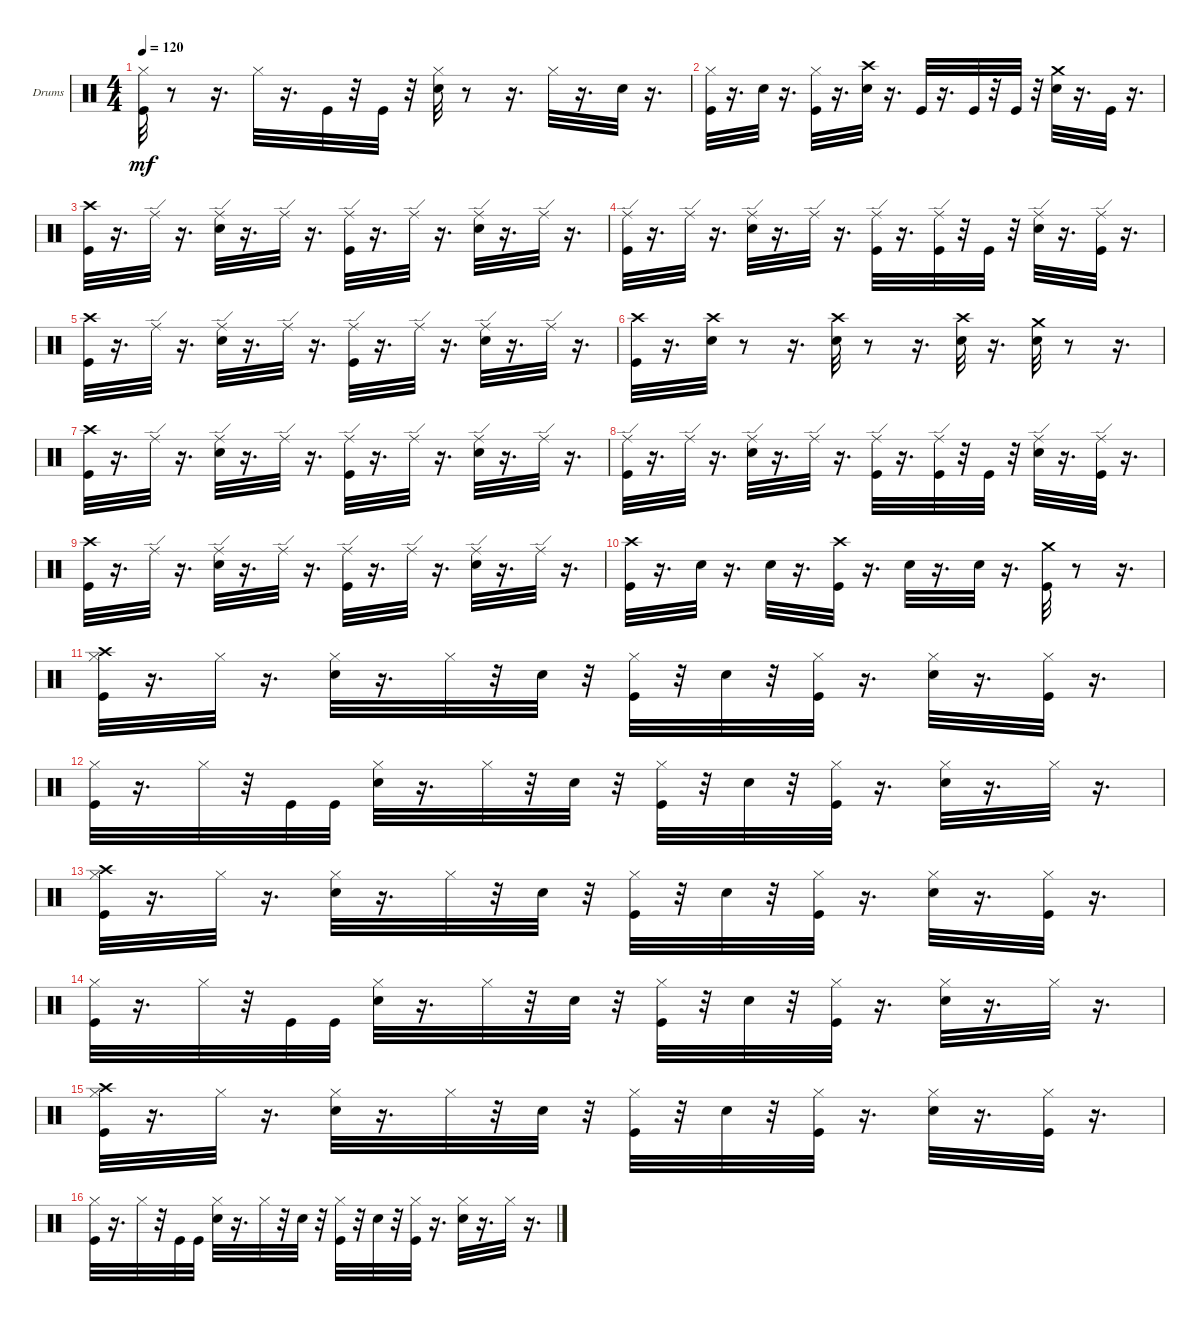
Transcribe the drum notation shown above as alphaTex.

\bracketExtendMode groupsimilarinstruments
\firstSystemTrackNameOrientation horizontal
\otherSystemsTrackNameOrientation horizontal
\track ("" "Drums") {instrument percussion}
\staff {score}
\articulation defaults
\ts (4 4)
\tempo 120
\clef neutral
\ks c
("Hi-Hat (closed)" "Kick (hit)").32{dy mf} r.8 r.16{d} "Hi-Hat (closed)".32 r.16{d} "Kick (hit)".32 r.32 "Kick (hit)".32 r.32 ("Snare (hit) 2" "Hi-Hat (closed)").32 r.8 r.16{d} "Hi-Hat (closed)".32 r.16{d} "Snare (hit) 2".32 r.16{d} |
("Hi-Hat (closed)" "Kick (hit)").32 r.16{d} "Snare (hit) 2".32 r.16{d} ("Hi-Hat (closed)" "Kick (hit)").32 r.16{d} ("Crash high (hit)" "Snare (hit) 2").32 r.16{d} "Kick (hit)".32 r.16{d} "Kick (hit)".32 r.32 "Kick (hit)".32 r.32 ("Crash medium (hit)" "Snare (hit) 2").32 r.16{d} "Kick (hit)".32 r.16{d} |
("Crash high (hit)" "Kick (hit)").32 r.16{d} "Ride (edge)".32 r.16{d} ("Snare (hit) 2" "Ride (edge)").32 r.16{d} "Ride (edge)".32 r.16{d} ("Kick (hit)" "Ride (edge)").32 r.16{d} "Ride (edge)".32 r.16{d} ("Snare (hit) 2" "Ride (edge)").32 r.16{d} "Ride (edge)".32 r.16{d} |
("Ride (edge)" "Kick (hit)").32 r.16{d} "Ride (edge)".32 r.16{d} ("Snare (hit) 2" "Ride (edge)").32 r.16{d} "Ride (edge)".32 r.16{d} ("Kick (hit)" "Ride (edge)").32 r.16{d} ("Kick (hit)" "Ride (edge)").32 r.32 "Kick (hit)".32 r.32 ("Snare (hit) 2" "Ride (edge)").32 r.16{d} ("Kick (hit)" "Ride (edge)").32 r.16{d} |
("Crash high (hit)" "Kick (hit)").32 r.16{d} "Ride (edge)".32 r.16{d} ("Snare (hit) 2" "Ride (edge)").32 r.16{d} "Ride (edge)".32 r.16{d} ("Kick (hit)" "Ride (edge)").32 r.16{d} "Ride (edge)".32 r.16{d} ("Snare (hit) 2" "Ride (edge)").32 r.16{d} "Ride (edge)".32 r.16{d} |
("Crash high (hit)" "Kick (hit)").32 r.16{d} ("Crash high (hit)" "Snare (hit) 2").32 r.8 r.16{d} ("Crash high (hit)" "Snare (hit) 2").32 r.8 r.16{d} ("Crash high (hit)" "Snare (hit) 2").32 r.16{d} ("Crash medium (hit)" "Snare (hit) 2").32 r.8 r.16{d} |
("Crash high (hit)" "Kick (hit)").32 r.16{d} "Ride (edge)".32 r.16{d} ("Snare (hit) 2" "Ride (edge)").32 r.16{d} "Ride (edge)".32 r.16{d} ("Kick (hit)" "Ride (edge)").32 r.16{d} "Ride (edge)".32 r.16{d} ("Snare (hit) 2" "Ride (edge)").32 r.16{d} "Ride (edge)".32 r.16{d} |
("Ride (edge)" "Kick (hit)").32 r.16{d} "Ride (edge)".32 r.16{d} ("Snare (hit) 2" "Ride (edge)").32 r.16{d} "Ride (edge)".32 r.16{d} ("Kick (hit)" "Ride (edge)").32 r.16{d} ("Kick (hit)" "Ride (edge)").32 r.32 "Kick (hit)".32 r.32 ("Snare (hit) 2" "Ride (edge)").32 r.16{d} ("Kick (hit)" "Ride (edge)").32 r.16{d} |
("Crash high (hit)" "Kick (hit)").32 r.16{d} "Ride (edge)".32 r.16{d} ("Snare (hit) 2" "Ride (edge)").32 r.16{d} "Ride (edge)".32 r.16{d} ("Kick (hit)" "Ride (edge)").32 r.16{d} "Ride (edge)".32 r.16{d} ("Snare (hit) 2" "Ride (edge)").32 r.16{d} "Ride (edge)".32 r.16{d} |
("Crash high (hit)" "Kick (hit)").32 r.16{d} "Snare (hit) 2".32 r.16{d} "Snare (hit) 2".32 r.16{d} ("Crash high (hit)" "Kick (hit)").32 r.16{d} "Snare (hit) 2".32 r.16{d} "Snare (hit) 2".32 r.16{d} ("Crash medium (hit)" "Kick (hit)").32 r.8 r.16{d} |
("Hi-Hat (closed)" "Crash high (hit)" "Kick (hit)").32 r.16{d} "Hi-Hat (closed)".32 r.16{d} ("Hi-Hat (closed)" "Snare (hit) 2").32 r.16{d} "Hi-Hat (closed)".32 r.32 "Snare (hit) 2".32 r.32 ("Kick (hit)" "Hi-Hat (closed)").32 r.32 "Snare (hit) 2".32 r.32 ("Kick (hit)" "Hi-Hat (closed)").32 r.16{d} ("Snare (hit) 2" "Hi-Hat (closed)").32 r.16{d} ("Kick (hit)" "Hi-Hat (closed)").32 r.16{d} |
("Hi-Hat (closed)" "Kick (hit)").32 r.16{d} "Hi-Hat (closed)".32 r.32 "Kick (hit)".32 "Kick (hit)".32 ("Hi-Hat (closed)" "Snare (hit) 2").32 r.16{d} "Hi-Hat (closed)".32 r.32 "Snare (hit) 2".32 r.32 ("Kick (hit)" "Hi-Hat (closed)").32 r.32 "Snare (hit) 2".32 r.32 ("Kick (hit)" "Hi-Hat (closed)").32 r.16{d} ("Snare (hit) 2" "Hi-Hat (closed)").32 r.16{d} "Hi-Hat (closed)".32 r.16{d} |
("Hi-Hat (closed)" "Crash high (hit)" "Kick (hit)").32 r.16{d} "Hi-Hat (closed)".32 r.16{d} ("Hi-Hat (closed)" "Snare (hit) 2").32 r.16{d} "Hi-Hat (closed)".32 r.32 "Snare (hit) 2".32 r.32 ("Kick (hit)" "Hi-Hat (closed)").32 r.32 "Snare (hit) 2".32 r.32 ("Kick (hit)" "Hi-Hat (closed)").32 r.16{d} ("Snare (hit) 2" "Hi-Hat (closed)").32 r.16{d} ("Kick (hit)" "Hi-Hat (closed)").32 r.16{d} |
("Hi-Hat (closed)" "Kick (hit)").32 r.16{d} "Hi-Hat (closed)".32 r.32 "Kick (hit)".32 "Kick (hit)".32 ("Hi-Hat (closed)" "Snare (hit) 2").32 r.16{d} "Hi-Hat (closed)".32 r.32 "Snare (hit) 2".32 r.32 ("Kick (hit)" "Hi-Hat (closed)").32 r.32 "Snare (hit) 2".32 r.32 ("Kick (hit)" "Hi-Hat (closed)").32 r.16{d} ("Snare (hit) 2" "Hi-Hat (closed)").32 r.16{d} "Hi-Hat (closed)".32 r.16{d} |
("Hi-Hat (closed)" "Crash high (hit)" "Kick (hit)").32 r.16{d} "Hi-Hat (closed)".32 r.16{d} ("Hi-Hat (closed)" "Snare (hit) 2").32 r.16{d} "Hi-Hat (closed)".32 r.32 "Snare (hit) 2".32 r.32 ("Kick (hit)" "Hi-Hat (closed)").32 r.32 "Snare (hit) 2".32 r.32 ("Kick (hit)" "Hi-Hat (closed)").32 r.16{d} ("Snare (hit) 2" "Hi-Hat (closed)").32 r.16{d} ("Kick (hit)" "Hi-Hat (closed)").32 r.16{d} |
("Hi-Hat (closed)" "Kick (hit)").32 r.16{d} "Hi-Hat (closed)".32 r.32 "Kick (hit)".32 "Kick (hit)".32 ("Hi-Hat (closed)" "Snare (hit) 2").32 r.16{d} "Hi-Hat (closed)".32 r.32 "Snare (hit) 2".32 r.32 ("Kick (hit)" "Hi-Hat (closed)").32 r.32 "Snare (hit) 2".32 r.32 ("Kick (hit)" "Hi-Hat (closed)").32 r.16{d} ("Snare (hit) 2" "Hi-Hat (closed)").32 r.16{d} "Hi-Hat (closed)".32 r.16{d}
